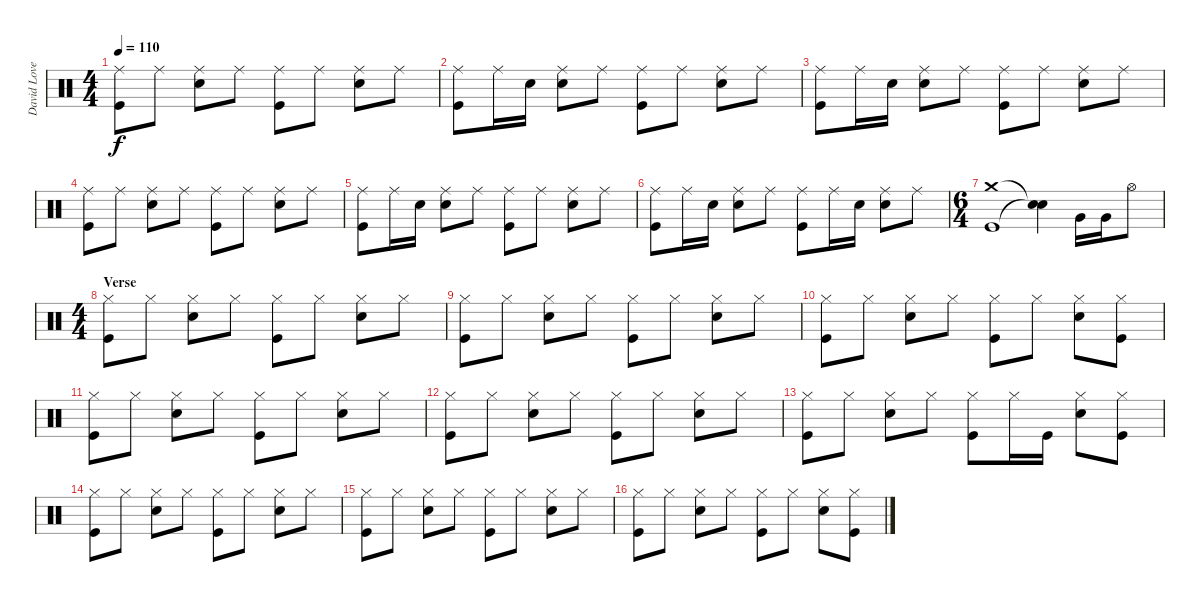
\track ("David Lovering" "David Love") {instrument percussion}
\staff {score}
\articulation defaults
\ts (4 4)
\tempo 110
\clef neutral
\ks c
("Ride (middle)" "Kick (hit)").8{dy f} "Ride (middle)".8 ("Ride (middle)" "Snare (hit) 2").8 "Ride (middle)".8 ("Ride (middle)" "Kick (hit)").8 "Ride (middle)".8 ("Ride (middle)" "Snare (hit) 2").8 "Ride (middle)".8 |
("Ride (middle)" "Kick (hit)").8 "Ride (middle)".16 "Snare (hit) 2".16 ("Ride (middle)" "Snare (hit) 2").8 "Ride (middle)".8 ("Ride (middle)" "Kick (hit)").8 "Ride (middle)".8 ("Ride (middle)" "Snare (hit) 2").8 "Ride (middle)".8 |
("Ride (middle)" "Kick (hit)").8 "Ride (middle)".16 "Snare (hit) 2".16 ("Ride (middle)" "Snare (hit) 2").8 "Ride (middle)".8 ("Ride (middle)" "Kick (hit)").8 "Ride (middle)".8 ("Ride (middle)" "Snare (hit) 2").8 "Ride (middle)".8 |
("Ride (middle)" "Kick (hit)").8 "Ride (middle)".8 ("Ride (middle)" "Snare (hit) 2").8 "Ride (middle)".8 ("Ride (middle)" "Kick (hit)").8 "Ride (middle)".8 ("Ride (middle)" "Snare (hit) 2").8 "Ride (middle)".8 |
("Ride (middle)" "Kick (hit)").8 "Ride (middle)".16 "Snare (hit) 2".16 ("Ride (middle)" "Snare (hit) 2").8 "Ride (middle)".8 ("Ride (middle)" "Kick (hit)").8 "Ride (middle)".8 ("Ride (middle)" "Snare (hit) 2").8 "Ride (middle)".8 |
("Ride (middle)" "Kick (hit)").8 "Ride (middle)".16 "Snare (hit) 2".16 ("Ride (middle)" "Snare (hit) 2").8 "Ride (middle)".8 ("Ride (middle)" "Kick (hit)").8 "Ride (middle)".16 "Snare (hit) 2".16 ("Ride (middle)" "Snare (hit) 2").8 "Ride (middle)".8 |
\ts (6 4)
("Crash medium (hit)" "Kick (hit)").1 ("Snare (hit)"{t} "Snare (hit)"{t}).4 "Very Low Tom (hit)".16 "Very Low Tom (hit)".16 "Hi-Hat (open)".8 |
\ts (4 4)
\section ("" "Verse")
("Hi-Hat (closed)" "Kick (hit)").8 "Hi-Hat (closed)".8 ("Hi-Hat (closed)" "Snare (hit) 2").8 "Hi-Hat (closed)".8 ("Hi-Hat (closed)" "Kick (hit)").8 "Hi-Hat (closed)".8 ("Hi-Hat (closed)" "Snare (hit) 2").8 "Hi-Hat (closed)".8 |
("Hi-Hat (closed)" "Kick (hit)").8 "Hi-Hat (closed)".8 ("Hi-Hat (closed)" "Snare (hit) 2").8 "Hi-Hat (closed)".8 ("Hi-Hat (closed)" "Kick (hit)").8 "Hi-Hat (closed)".8 ("Hi-Hat (closed)" "Snare (hit) 2").8 "Hi-Hat (closed)".8 |
("Hi-Hat (closed)" "Kick (hit)").8 "Hi-Hat (closed)".8 ("Hi-Hat (closed)" "Snare (hit) 2").8 "Hi-Hat (closed)".8 ("Hi-Hat (closed)" "Kick (hit)").8 "Hi-Hat (closed)".8 ("Hi-Hat (closed)" "Snare (hit) 2").8 ("Hi-Hat (closed)" "Kick (hit)").8 |
("Hi-Hat (closed)" "Kick (hit)").8 "Hi-Hat (closed)".8 ("Hi-Hat (closed)" "Snare (hit) 2").8 "Hi-Hat (closed)".8 ("Hi-Hat (closed)" "Kick (hit)").8 "Hi-Hat (closed)".8 ("Hi-Hat (closed)" "Snare (hit) 2").8 "Hi-Hat (closed)".8 |
("Hi-Hat (closed)" "Kick (hit)").8 "Hi-Hat (closed)".8 ("Hi-Hat (closed)" "Snare (hit) 2").8 "Hi-Hat (closed)".8 ("Hi-Hat (closed)" "Kick (hit)").8 "Hi-Hat (closed)".8 ("Hi-Hat (closed)" "Snare (hit) 2").8 "Hi-Hat (closed)".8 |
("Hi-Hat (closed)" "Kick (hit)").8 "Hi-Hat (closed)".8 ("Hi-Hat (closed)" "Snare (hit) 2").8 "Hi-Hat (closed)".8 ("Hi-Hat (closed)" "Kick (hit)").8 "Hi-Hat (closed)".16 "Kick (hit)".16 ("Hi-Hat (closed)" "Snare (hit) 2").8 ("Hi-Hat (closed)" "Kick (hit)").8 |
("Hi-Hat (closed)" "Kick (hit)").8 "Hi-Hat (closed)".8 ("Hi-Hat (closed)" "Snare (hit) 2").8 "Hi-Hat (closed)".8 ("Hi-Hat (closed)" "Kick (hit)").8 "Hi-Hat (closed)".8 ("Hi-Hat (closed)" "Snare (hit) 2").8 "Hi-Hat (closed)".8 |
("Hi-Hat (closed)" "Kick (hit)").8 "Hi-Hat (closed)".8 ("Hi-Hat (closed)" "Snare (hit) 2").8 "Hi-Hat (closed)".8 ("Hi-Hat (closed)" "Kick (hit)").8 "Hi-Hat (closed)".8 ("Hi-Hat (closed)" "Snare (hit) 2").8 "Hi-Hat (closed)".8 |
("Hi-Hat (closed)" "Kick (hit)").8 "Hi-Hat (closed)".8 ("Hi-Hat (closed)" "Snare (hit) 2").8 "Hi-Hat (closed)".8 ("Hi-Hat (closed)" "Kick (hit)").8 "Hi-Hat (closed)".8 ("Hi-Hat (closed)" "Snare (hit) 2").8 ("Hi-Hat (closed)" "Kick (hit)").8
